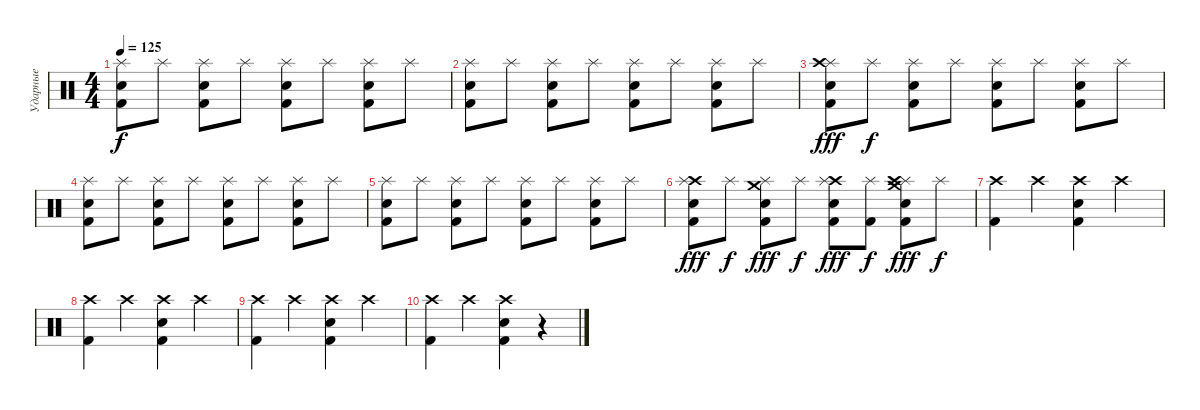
\track ("Ударные" "Ударные") {instrument percussion}
\staff {score}
\articulation defaults
\ts (4 4)
\tempo 125
\clef neutral
\ks c
("Snare (hit) 2" "Splash (hit)" "Kick (hit) 2").8{dy f} "Splash (hit)".8 ("Electric Snare (hit)" "Splash (hit)" "Kick (hit) 2").8 "Splash (hit)".8 ("Snare (hit) 2" "Splash (hit)" "Kick (hit) 2").8 "Splash (hit)".8 ("Electric Snare (hit)" "Splash (hit)" "Kick (hit) 2").8 "Splash (hit)".8 |
("Snare (hit) 2" "Splash (hit)" "Kick (hit) 2").8 "Splash (hit)".8 ("Electric Snare (hit)" "Splash (hit)" "Kick (hit) 2").8 "Splash (hit)".8 ("Snare (hit) 2" "Splash (hit)" "Kick (hit) 2").8 "Splash (hit)".8 ("Electric Snare (hit)" "Splash (hit)" "Kick (hit) 2").8 "Splash (hit)".8 |
("Snare (hit) 2" "Splash (hit)" "Crash high (hit)" "Kick (hit) 2").8{dy fff} "Splash (hit)".8{dy f} ("Electric Snare (hit)" "Splash (hit)" "Kick (hit) 2").8 "Splash (hit)".8 ("Snare (hit) 2" "Splash (hit)" "Kick (hit) 2").8 "Splash (hit)".8 ("Electric Snare (hit)" "Splash (hit)" "Kick (hit) 2").8 "Splash (hit)".8 |
("Snare (hit) 2" "Splash (hit)" "Kick (hit) 2").8 "Splash (hit)".8 ("Electric Snare (hit)" "Splash (hit)" "Kick (hit) 2").8 "Splash (hit)".8 ("Snare (hit) 2" "Splash (hit)" "Kick (hit) 2").8 "Splash (hit)".8 ("Electric Snare (hit)" "Splash (hit)" "Kick (hit) 2").8 "Splash (hit)".8 |
("Snare (hit) 2" "Splash (hit)" "Kick (hit) 2").8 "Splash (hit)".8 ("Electric Snare (hit)" "Splash (hit)" "Kick (hit) 2").8 "Splash (hit)".8 ("Snare (hit) 2" "Splash (hit)" "Kick (hit) 2").8 "Splash (hit)".8 ("Electric Snare (hit)" "Splash (hit)" "Kick (hit) 2").8 "Splash (hit)".8 |
("Snare (hit) 2" "Crash high (hit)" "Splash (hit)" "Kick (hit) 2").8{dy fff} "Splash (hit)".8{dy f} ("Electric Snare (hit)" "Crash medium (hit)" "Splash (hit)" "Kick (hit) 2").8{dy fff} "Splash (hit)".8{dy f} ("Snare (hit) 2" "Crash high (hit)" "Splash (hit)" "Kick (hit) 2").8{dy fff} ("Splash (hit)" "Kick (hit) 2").8{dy f} ("Electric Snare (hit)" "Crash medium (hit)" "Splash (hit)" "Crash high (hit)" "Kick (hit) 2").8{dy fff} "Splash (hit)".8{dy f} |
("Crash high (hit)" "Kick (hit) 2").4 "Crash high (hit)".4 ("Electric Snare (hit)" "Crash high (hit)" "Kick (hit) 2").4 "Crash high (hit)".4 |
("Crash high (hit)" "Kick (hit) 2").4 "Crash high (hit)".4 ("Electric Snare (hit)" "Crash high (hit)" "Kick (hit) 2").4 "Crash high (hit)".4 |
("Crash high (hit)" "Kick (hit) 2").4 "Crash high (hit)".4 ("Electric Snare (hit)" "Crash high (hit)" "Kick (hit) 2").4 "Crash high (hit)".4 |
("Crash high (hit)" "Kick (hit) 2").4 "Crash high (hit)".4 ("Electric Snare (hit)" "Crash high (hit)" "Kick (hit) 2").4 r.4
